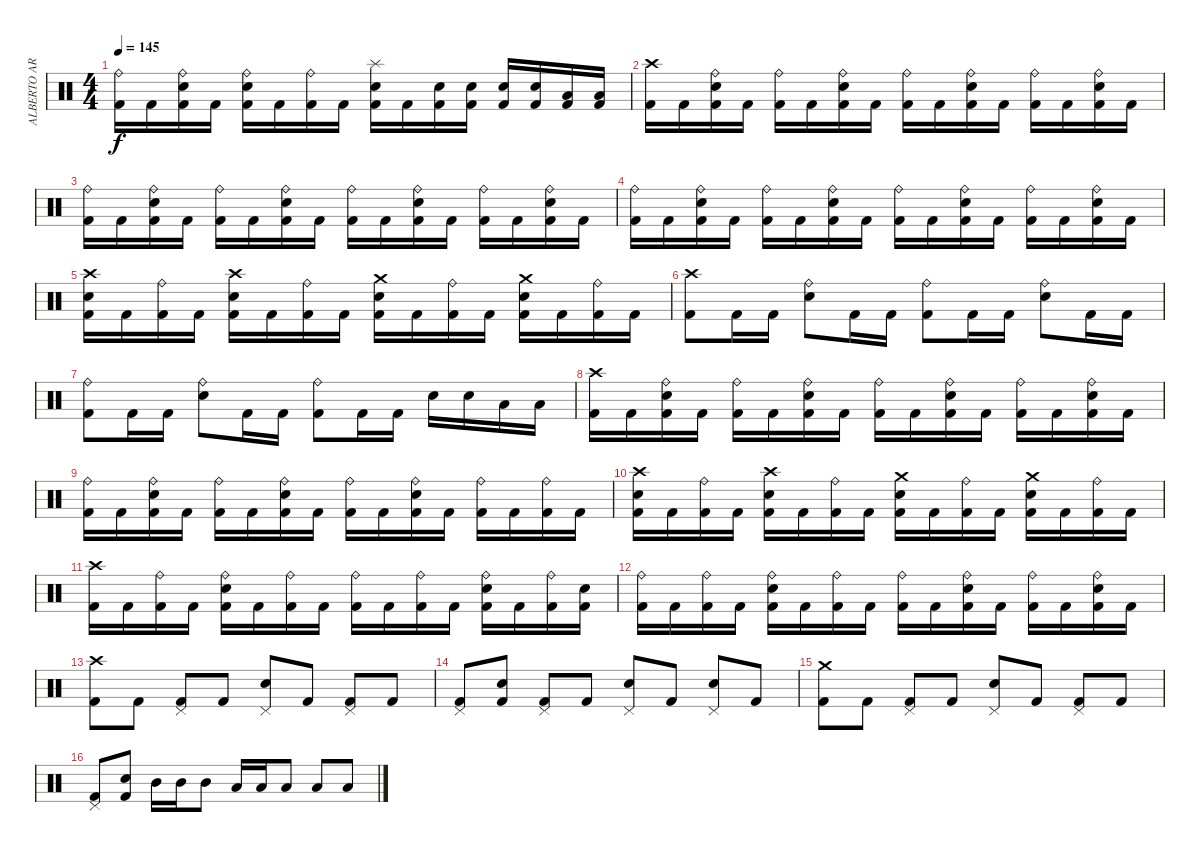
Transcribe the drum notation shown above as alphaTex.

\track ("ALBERTO ARDINES" "ALBERTO AR") {instrument percussion}
\staff {score}
\articulation defaults
\ts (4 4)
\tempo 145
\clef neutral
\ks c
("Ride (bell)" "Kick (hit) 2").16{dy f} "Kick (hit) 2".16 ("Ride (bell)" "Electric Snare (hit)" "Kick (hit) 2").16 "Kick (hit) 2".16 ("Ride (bell)" "Electric Snare (hit)" "Kick (hit) 2").16 "Kick (hit) 2".16 ("Ride (bell)" "Kick (hit) 2").16 "Kick (hit) 2".16 ("Splash (hit)" "Electric Snare (hit)" "Kick (hit) 2").16 "Kick (hit) 2".16 ("Electric Snare (hit)" "Kick (hit) 2").16 ("Electric Snare (hit)" "Kick (hit) 2").16 ("Electric Snare (hit)" "Kick (hit) 2").16 ("Electric Snare (hit)" "Kick (hit) 2").16 ("Low Tom (hit)" "Kick (hit) 2").16 ("Low Tom (hit)" "Kick (hit) 2").16 |
("Crash high (hit)" "Kick (hit) 2").16 "Kick (hit) 2".16 ("Ride (bell)" "Electric Snare (hit)" "Kick (hit) 2").16 "Kick (hit) 2".16 ("Ride (bell)" "Kick (hit) 2").16 "Kick (hit) 2".16 ("Ride (bell)" "Electric Snare (hit)" "Kick (hit) 2").16 "Kick (hit) 2".16 ("Ride (bell)" "Kick (hit) 2").16 "Kick (hit) 2".16 ("Ride (bell)" "Electric Snare (hit)" "Kick (hit) 2").16 "Kick (hit) 2".16 ("Ride (bell)" "Kick (hit) 2").16 "Kick (hit) 2".16 ("Ride (bell)" "Electric Snare (hit)" "Kick (hit) 2").16 "Kick (hit) 2".16 |
("Ride (bell)" "Kick (hit) 2").16 "Kick (hit) 2".16 ("Ride (bell)" "Electric Snare (hit)" "Kick (hit) 2").16 "Kick (hit) 2".16 ("Ride (bell)" "Kick (hit) 2").16 "Kick (hit) 2".16 ("Ride (bell)" "Electric Snare (hit)" "Kick (hit) 2").16 "Kick (hit) 2".16 ("Ride (bell)" "Kick (hit) 2").16 "Kick (hit) 2".16 ("Ride (bell)" "Electric Snare (hit)" "Kick (hit) 2").16 "Kick (hit) 2".16 ("Ride (bell)" "Kick (hit) 2").16 "Kick (hit) 2".16 ("Ride (bell)" "Electric Snare (hit)" "Kick (hit) 2").16 "Kick (hit) 2".16 |
("Ride (bell)" "Kick (hit) 2").16 "Kick (hit) 2".16 ("Ride (bell)" "Electric Snare (hit)" "Kick (hit) 2").16 "Kick (hit) 2".16 ("Ride (bell)" "Kick (hit) 2").16 "Kick (hit) 2".16 ("Ride (bell)" "Electric Snare (hit)" "Kick (hit) 2").16 "Kick (hit) 2".16 ("Ride (bell)" "Kick (hit) 2").16 "Kick (hit) 2".16 ("Ride (bell)" "Electric Snare (hit)" "Kick (hit) 2").16 "Kick (hit) 2".16 ("Ride (bell)" "Kick (hit) 2").16 "Kick (hit) 2".16 ("Ride (bell)" "Electric Snare (hit)" "Kick (hit) 2").16 "Kick (hit) 2".16 |
("Crash high (hit)" "Electric Snare (hit)" "Kick (hit) 2").16 "Kick (hit) 2".16 ("Ride (bell)" "Kick (hit) 2").16 "Kick (hit) 2".16 ("Crash high (hit)" "Electric Snare (hit)" "Kick (hit) 2").16 "Kick (hit) 2".16 ("Ride (bell)" "Kick (hit) 2").16 "Kick (hit) 2".16 ("Crash medium (hit)" "Electric Snare (hit)" "Kick (hit) 2").16 "Kick (hit) 2".16 ("Ride (bell)" "Kick (hit) 2").16 "Kick (hit) 2".16 ("Crash medium (hit)" "Electric Snare (hit)" "Kick (hit) 2").16 "Kick (hit) 2".16 ("Ride (bell)" "Kick (hit) 2").16 "Kick (hit) 2".16 |
("Crash high (hit)" "Kick (hit) 2").8 "Kick (hit) 2".16 "Kick (hit) 2".16 ("Ride (bell)" "Electric Snare (hit)").8 "Kick (hit) 2".16 "Kick (hit) 2".16 ("Ride (bell)" "Kick (hit) 2").8 "Kick (hit) 2".16 "Kick (hit) 2".16 ("Ride (bell)" "Electric Snare (hit)").8 "Kick (hit) 2".16 "Kick (hit) 2".16 |
("Ride (bell)" "Kick (hit) 2").8 "Kick (hit) 2".16 "Kick (hit) 2".16 ("Ride (bell)" "Electric Snare (hit)").8 "Kick (hit) 2".16 "Kick (hit) 2".16 ("Ride (bell)" "Kick (hit) 2").8 "Kick (hit) 2".16 "Kick (hit) 2".16 "Electric Snare (hit)".16 "Electric Snare (hit)".16 "Low Tom (hit)".16 "Low Tom (hit)".16 |
("Crash high (hit)" "Kick (hit) 2").16 "Kick (hit) 2".16 ("Ride (bell)" "Electric Snare (hit)" "Kick (hit) 2").16 "Kick (hit) 2".16 ("Ride (bell)" "Kick (hit) 2").16 "Kick (hit) 2".16 ("Ride (bell)" "Electric Snare (hit)" "Kick (hit) 2").16 "Kick (hit) 2".16 ("Ride (bell)" "Kick (hit) 2").16 "Kick (hit) 2".16 ("Ride (bell)" "Electric Snare (hit)" "Kick (hit) 2").16 "Kick (hit) 2".16 ("Ride (bell)" "Kick (hit) 2").16 "Kick (hit) 2".16 ("Ride (bell)" "Electric Snare (hit)" "Kick (hit) 2").16 "Kick (hit) 2".16 |
("Ride (bell)" "Kick (hit) 2").16 "Kick (hit) 2".16 ("Ride (bell)" "Electric Snare (hit)" "Kick (hit) 2").16 "Kick (hit) 2".16 ("Ride (bell)" "Kick (hit) 2").16 "Kick (hit) 2".16 ("Ride (bell)" "Electric Snare (hit)" "Kick (hit) 2").16 "Kick (hit) 2".16 ("Ride (bell)" "Kick (hit) 2").16 "Kick (hit) 2".16 ("Ride (bell)" "Electric Snare (hit)" "Kick (hit) 2").16 "Kick (hit) 2".16 ("Ride (bell)" "Kick (hit) 2").16 "Kick (hit) 2".16 ("Ride (bell)" "Kick (hit) 2").16 "Kick (hit) 2".16 |
("Crash high (hit)" "Electric Snare (hit)" "Kick (hit) 2").16 "Kick (hit) 2".16 ("Ride (bell)" "Kick (hit) 2").16 "Kick (hit) 2".16 ("Crash high (hit)" "Electric Snare (hit)" "Kick (hit) 2").16 "Kick (hit) 2".16 ("Ride (bell)" "Kick (hit) 2").16 "Kick (hit) 2".16 ("Crash medium (hit)" "Electric Snare (hit)" "Kick (hit) 2").16 "Kick (hit) 2".16 ("Ride (bell)" "Kick (hit) 2").16 "Kick (hit) 2".16 ("Crash medium (hit)" "Electric Snare (hit)" "Kick (hit) 2").16 "Kick (hit) 2".16 ("Ride (bell)" "Kick (hit) 2").16 "Kick (hit) 2".16 |
("Crash high (hit)" "Kick (hit) 2").16 "Kick (hit) 2".16 ("Ride (bell)" "Kick (hit) 2").16 "Kick (hit) 2".16 ("Ride (bell)" "Electric Snare (hit)" "Kick (hit) 2").16 "Kick (hit) 2".16 ("Ride (bell)" "Kick (hit) 2").16 "Kick (hit) 2".16 ("Ride (bell)" "Kick (hit) 2").16 "Kick (hit) 2".16 ("Ride (bell)" "Kick (hit) 2").16 "Kick (hit) 2".16 ("Ride (bell)" "Electric Snare (hit)" "Kick (hit) 2").16 "Kick (hit) 2".16 ("Ride (bell)" "Kick (hit) 2").16 ("Electric Snare (hit)" "Kick (hit) 2").16 |
("Ride (bell)" "Kick (hit) 2").16 "Kick (hit) 2".16 ("Ride (bell)" "Kick (hit) 2").16 "Kick (hit) 2".16 ("Ride (bell)" "Electric Snare (hit)" "Kick (hit) 2").16 "Kick (hit) 2".16 ("Ride (bell)" "Kick (hit) 2").16 "Kick (hit) 2".16 ("Ride (bell)" "Kick (hit) 2").16 "Kick (hit) 2".16 ("Ride (bell)" "Electric Snare (hit)" "Kick (hit) 2").16 "Kick (hit) 2".16 ("Ride (bell)" "Kick (hit) 2").16 "Kick (hit) 2".16 ("Ride (bell)" "Electric Snare (hit)" "Kick (hit) 2").16 "Kick (hit) 2".16 |
("Crash high (hit)" "Kick (hit) 2").8 "Kick (hit) 2".8 ("Pedal Hi-Hat (hit)" "Kick (hit) 2").8 "Kick (hit) 2".8 ("Pedal Hi-Hat (hit)" "Electric Snare (hit)").8 "Kick (hit) 2".8 ("Pedal Hi-Hat (hit)" "Kick (hit) 2").8 "Kick (hit) 2".8 |
("Pedal Hi-Hat (hit)" "Kick (hit) 2").8 ("Electric Snare (hit)" "Kick (hit) 2").8 ("Pedal Hi-Hat (hit)" "Kick (hit) 2").8 "Kick (hit) 2".8 ("Pedal Hi-Hat (hit)" "Electric Snare (hit)").8 "Kick (hit) 2".8 ("Pedal Hi-Hat (hit)" "Electric Snare (hit)").8 "Kick (hit) 2".8 |
("Crash medium (hit)" "Kick (hit) 2").8 "Kick (hit) 2".8 ("Pedal Hi-Hat (hit)" "Kick (hit) 2").8 "Kick (hit) 2".8 ("Pedal Hi-Hat (hit)" "Electric Snare (hit)").8 "Kick (hit) 2".8 ("Pedal Hi-Hat (hit)" "Kick (hit) 2").8 "Kick (hit) 2".8 |
("Pedal Hi-Hat (hit)" "Kick (hit) 2").8 ("Electric Snare (hit)" "Kick (hit) 2").8 "Mid Tom (hit)".16 "Mid Tom (hit)".16 "Mid Tom (hit)".8 "Low Tom (hit)".16 "Low Tom (hit)".16 "Low Tom (hit)".8 "Low Tom (hit)".8 "Low Tom (hit)".8
